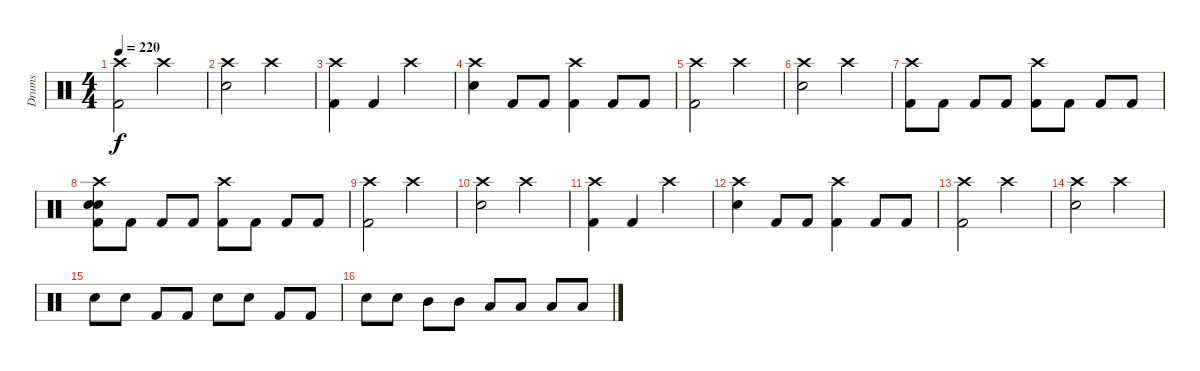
\track ("Drums" "Drums") {instrument percussion}
\staff {score}
\articulation defaults
\ts (4 4)
\tempo 220
\clef neutral
\ks c
("Crash high (hit)" "Kick (hit) 2").2{dy f} "Crash high (hit)".2 |
("Crash high (hit)" "Electric Snare (hit)").2 "Crash high (hit)".2 |
("Crash high (hit)" "Kick (hit) 2").4 "Kick (hit) 2".4 "Crash high (hit)".2 |
("Crash high (hit)" "Electric Snare (hit)").4 "Kick (hit) 2".8 "Kick (hit) 2".8 ("Crash high (hit)" "Kick (hit) 2").4 "Kick (hit) 2".8 "Kick (hit) 2".8 |
("Crash high (hit)" "Kick (hit) 2").2 "Crash high (hit)".2 |
("Crash high (hit)" "Electric Snare (hit)").2 "Crash high (hit)".2 |
("Crash high (hit)" "Kick (hit) 2").8 "Kick (hit) 2".8 "Kick (hit) 2".8 "Kick (hit) 2".8 ("Crash high (hit)" "Kick (hit) 2").8 "Kick (hit) 2".8 "Kick (hit) 2".8 "Kick (hit) 2".8 |
("Crash high (hit)" "Electric Snare (hit)" "Electric Snare (hit)" "Kick (hit) 2").8 "Kick (hit) 2".8 "Kick (hit) 2".8 "Kick (hit) 2".8 ("Crash high (hit)" "Kick (hit) 2").8 "Kick (hit) 2".8 "Kick (hit) 2".8 "Kick (hit) 2".8 |
("Crash high (hit)" "Kick (hit) 2").2 "Crash high (hit)".2 |
("Crash high (hit)" "Electric Snare (hit)").2 "Crash high (hit)".2 |
("Crash high (hit)" "Kick (hit) 2").4 "Kick (hit) 2".4 "Crash high (hit)".2 |
("Crash high (hit)" "Electric Snare (hit)").4 "Kick (hit) 2".8 "Kick (hit) 2".8 ("Crash high (hit)" "Kick (hit) 2").4 "Kick (hit) 2".8 "Kick (hit) 2".8 |
("Crash high (hit)" "Kick (hit) 2").2 "Crash high (hit)".2 |
("Crash high (hit)" "Electric Snare (hit)").2 "Crash high (hit)".2 |
"Electric Snare (hit)".8 "Electric Snare (hit)".8 "Kick (hit) 2".8 "Kick (hit) 2".8 "Electric Snare (hit)".8 "Electric Snare (hit)".8 "Kick (hit) 2".8 "Kick (hit) 2".8 |
"Electric Snare (hit)".8 "Electric Snare (hit)".8 "Mid Tom (hit)".8 "Mid Tom (hit)".8 "Low Tom (hit)".8 "Low Tom (hit)".8 "Low Floor Tom (hit)".8 "Low Floor Tom (hit)".8
